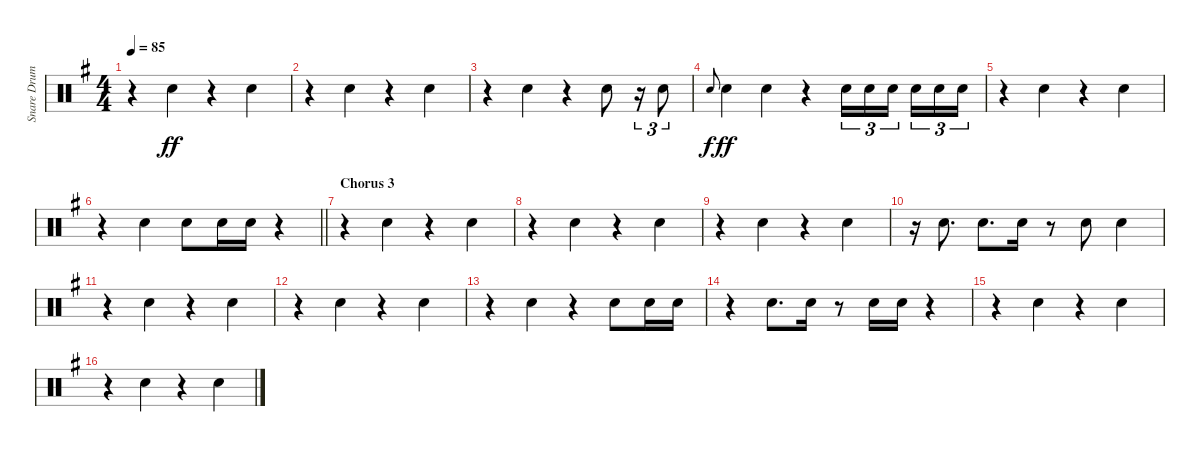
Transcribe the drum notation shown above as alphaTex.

\track ("Snare Drum" "Snare Drum") {instrument percussion}
\staff {score}
\articulation defaults
\ts (4 4)
\tempo 85
\clef neutral
\ks g
r.4{dy ff beam merge} "Electric Snare (hit)".4 r.4{beam merge} "Electric Snare (hit)".4 |
r.4{beam merge} "Electric Snare (hit)".4 r.4{beam merge} "Electric Snare (hit)".4 |
r.4{beam merge} "Electric Snare (hit)".4 r.4 "Electric Snare (hit)".8 r.16{tu (3 2)} "Electric Snare (hit)".8{tu (3 2)} |
"Electric Snare (hit)".8{gr onbeat dy f} "Electric Snare (hit)".4{dy ff} "Electric Snare (hit)".4 r.4 "Electric Snare (hit)".16{tu (3 2)} "Electric Snare (hit)".16{tu (3 2)} "Electric Snare (hit)".16{tu (3 2) beam splitsecondary} "Electric Snare (hit)".16{tu (3 2)} "Electric Snare (hit)".16{tu (3 2)} "Electric Snare (hit)".16{tu (3 2)} |
r.4{beam merge} "Electric Snare (hit)".4 r.4{beam merge} "Electric Snare (hit)".4 |
\barLineRight lightlight
r.4{beam merge} "Electric Snare (hit)".4 "Electric Snare (hit)".8 "Electric Snare (hit)".16 "Electric Snare (hit)".16 r.4 |
\section ("" "Chorus 3")
r.4{beam merge} "Electric Snare (hit)".4 r.4{beam merge} "Electric Snare (hit)".4 |
r.4{beam merge} "Electric Snare (hit)".4 r.4{beam merge} "Electric Snare (hit)".4 |
r.4{beam merge} "Electric Snare (hit)".4 r.4{beam merge} "Electric Snare (hit)".4 |
r.16 "Electric Snare (hit)".8{d} "Electric Snare (hit)".8{d} "Electric Snare (hit)".16 r.8 "Electric Snare (hit)".8 "Electric Snare (hit)".4 |
r.4{beam merge} "Electric Snare (hit)".4 r.4{beam merge} "Electric Snare (hit)".4 |
r.4{beam merge} "Electric Snare (hit)".4 r.4{beam merge} "Electric Snare (hit)".4 |
r.4{beam merge} "Electric Snare (hit)".4 r.4 "Electric Snare (hit)".8 "Electric Snare (hit)".16 "Electric Snare (hit)".16 |
r.4 "Electric Snare (hit)".8{d} "Electric Snare (hit)".16 r.8 "Electric Snare (hit)".16 "Electric Snare (hit)".16 r.4 |
r.4{beam merge} "Electric Snare (hit)".4 r.4{beam merge} "Electric Snare (hit)".4 |
r.4{beam merge} "Electric Snare (hit)".4 r.4{beam merge} "Electric Snare (hit)".4
